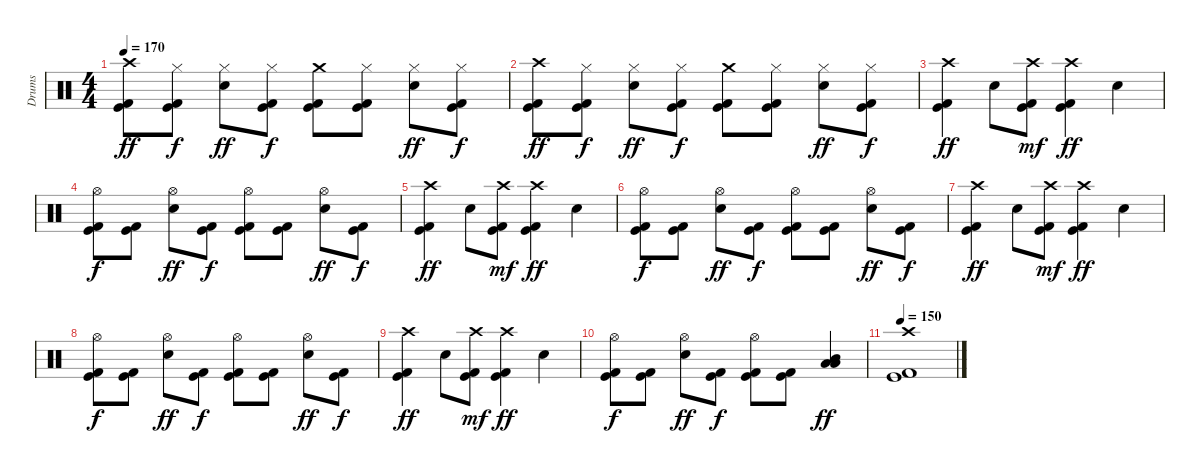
\track ("Drums" "Drums") {instrument percussion}
\staff {score}
\articulation defaults
\ts (4 4)
\tempo 170
\clef neutral
\ks c
("Crash high (hit)" "Kick (hit)" "Kick (hit) 2").8{dy ff} ("Hi-Hat (closed)" "Kick (hit)" "Kick (hit) 2").8{dy f} ("Hi-Hat (closed)" "Snare (hit) 2").8{dy ff} ("Hi-Hat (closed)" "Kick (hit)" "Kick (hit) 2").8{dy f} ("Crash medium (hit)" "Kick (hit)" "Kick (hit) 2").8 ("Hi-Hat (closed)" "Kick (hit)" "Kick (hit) 2").8 ("Hi-Hat (closed)" "Snare (hit) 2").8{dy ff} ("Hi-Hat (closed)" "Kick (hit)" "Kick (hit) 2").8{dy f} |
("Crash high (hit)" "Kick (hit)" "Kick (hit) 2").8{dy ff} ("Hi-Hat (closed)" "Kick (hit)" "Kick (hit) 2").8{dy f} ("Hi-Hat (closed)" "Snare (hit) 2").8{dy ff} ("Hi-Hat (closed)" "Kick (hit)" "Kick (hit) 2").8{dy f} ("Crash medium (hit)" "Kick (hit)" "Kick (hit) 2").8 ("Hi-Hat (closed)" "Kick (hit)" "Kick (hit) 2").8 ("Hi-Hat (closed)" "Snare (hit) 2").8{dy ff} ("Hi-Hat (closed)" "Kick (hit)" "Kick (hit) 2").8{dy f} |
("Crash high (hit)" "Kick (hit)" "Kick (hit) 2").4{dy ff} "Snare (hit) 2".8 ("Crash high (hit)" "Kick (hit)" "Kick (hit) 2").8{dy mf} ("Crash high (hit)" "Kick (hit)" "Kick (hit) 2").4{dy ff} "Snare (hit) 2".4 |
("Hi-Hat (open)" "Kick (hit)" "Kick (hit) 2").8{dy f} ("Kick (hit)" "Kick (hit) 2").8 ("Hi-Hat (open)" "Snare (hit) 2").8{dy ff} ("Kick (hit)" "Kick (hit) 2").8{dy f} ("Hi-Hat (open)" "Kick (hit)" "Kick (hit) 2").8 ("Kick (hit)" "Kick (hit) 2").8 ("Hi-Hat (open)" "Snare (hit) 2").8{dy ff} ("Kick (hit)" "Kick (hit) 2").8{dy f} |
("Crash high (hit)" "Kick (hit)" "Kick (hit) 2").4{dy ff} "Snare (hit) 2".8 ("Crash high (hit)" "Kick (hit)" "Kick (hit) 2").8{dy mf} ("Crash high (hit)" "Kick (hit)" "Kick (hit) 2").4{dy ff} "Snare (hit) 2".4 |
("Hi-Hat (open)" "Kick (hit)" "Kick (hit) 2").8{dy f} ("Kick (hit)" "Kick (hit) 2").8 ("Hi-Hat (open)" "Snare (hit) 2").8{dy ff} ("Kick (hit)" "Kick (hit) 2").8{dy f} ("Hi-Hat (open)" "Kick (hit)" "Kick (hit) 2").8 ("Kick (hit)" "Kick (hit) 2").8 ("Hi-Hat (open)" "Snare (hit) 2").8{dy ff} ("Kick (hit)" "Kick (hit) 2").8{dy f} |
("Crash high (hit)" "Kick (hit)" "Kick (hit) 2").4{dy ff} "Snare (hit) 2".8 ("Crash high (hit)" "Kick (hit)" "Kick (hit) 2").8{dy mf} ("Crash high (hit)" "Kick (hit)" "Kick (hit) 2").4{dy ff} "Snare (hit) 2".4 |
("Hi-Hat (open)" "Kick (hit)" "Kick (hit) 2").8{dy f} ("Kick (hit)" "Kick (hit) 2").8 ("Hi-Hat (open)" "Snare (hit) 2").8{dy ff} ("Kick (hit)" "Kick (hit) 2").8{dy f} ("Hi-Hat (open)" "Kick (hit)" "Kick (hit) 2").8 ("Kick (hit)" "Kick (hit) 2").8 ("Hi-Hat (open)" "Snare (hit) 2").8{dy ff} ("Kick (hit)" "Kick (hit) 2").8{dy f} |
("Crash high (hit)" "Kick (hit)" "Kick (hit) 2").4{dy ff} "Snare (hit) 2".8 ("Crash high (hit)" "Kick (hit)" "Kick (hit) 2").8{dy mf} ("Crash high (hit)" "Kick (hit)" "Kick (hit) 2").4{dy ff} "Snare (hit) 2".4 |
("Hi-Hat (open)" "Kick (hit)" "Kick (hit) 2").8{dy f} ("Kick (hit)" "Kick (hit) 2").8 ("Hi-Hat (open)" "Snare (hit) 2").8{dy ff} ("Kick (hit)" "Kick (hit) 2").8{dy f} ("Hi-Hat (open)" "Kick (hit)" "Kick (hit) 2").8 ("Kick (hit)" "Kick (hit) 2").8 ("Mid Tom (hit)" "Low Tom (hit)" "Low Floor Tom (hit)").4{dy ff} |
\tempo 150
("Crash high (hit)" "Kick (hit)" "Kick (hit) 2").1
